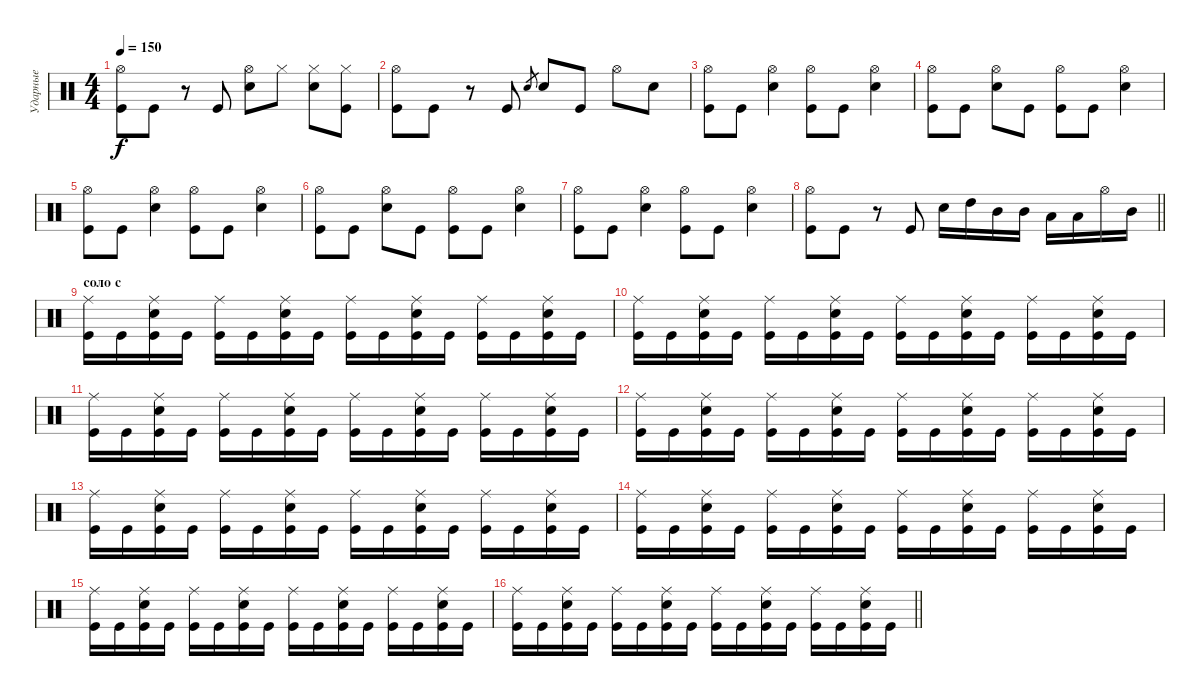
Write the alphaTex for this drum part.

\track ("Ударные" "Ударные") {instrument percussion}
\staff {score}
\articulation defaults
\ts (4 4)
\tempo 150
\clef neutral
\ks c
("Hi-Hat (open)" "Kick (hit)").8{dy f} "Kick (hit)".8 r.8 "Kick (hit)".8 ("Snare (hit) 2" "Hi-Hat (open)").8 "Hi-Hat (closed)".8 ("Snare (hit) 2" "Hi-Hat (closed)").8 ("Kick (hit)" "Hi-Hat (closed)").8 |
("Hi-Hat (open)" "Kick (hit)").8 "Kick (hit)".8 r.8 "Kick (hit)".8 "Snare (hit) 2".8{gr} "Snare (hit) 2".8 "Kick (hit)".8 "Hi-Hat (open)".8 "Snare (hit) 2".8 |
("Hi-Hat (open)" "Kick (hit)").8 "Kick (hit)".8 ("Hi-Hat (open)" "Snare (hit) 2").4 ("Kick (hit)" "Hi-Hat (open)").8 "Kick (hit)".8 ("Snare (hit) 2" "Hi-Hat (open)").4 |
("Kick (hit)" "Hi-Hat (open)").8 "Kick (hit)".8 ("Snare (hit) 2" "Hi-Hat (open)").8 "Kick (hit)".8 ("Hi-Hat (open)" "Kick (hit)").8 "Kick (hit)".8 ("Hi-Hat (open)" "Snare (hit) 2").4 |
("Hi-Hat (open)" "Kick (hit)").8 "Kick (hit)".8 ("Hi-Hat (open)" "Snare (hit) 2").4 ("Kick (hit)" "Hi-Hat (open)").8 "Kick (hit)".8 ("Snare (hit) 2" "Hi-Hat (open)").4 |
("Kick (hit)" "Hi-Hat (open)").8 "Kick (hit)".8 ("Snare (hit) 2" "Hi-Hat (open)").8 "Kick (hit)".8 ("Hi-Hat (open)" "Kick (hit)").8 "Kick (hit)".8 ("Hi-Hat (open)" "Snare (hit) 2").4 |
("Hi-Hat (open)" "Kick (hit)").8 "Kick (hit)".8 ("Hi-Hat (open)" "Snare (hit) 2").4 ("Kick (hit)" "Hi-Hat (open)").8 "Kick (hit)".8 ("Snare (hit) 2" "Hi-Hat (open)").4 |
\barLineRight lightlight
("Kick (hit)" "Hi-Hat (open)").8 "Kick (hit)".8 r.8 "Kick (hit)".8 "Snare (hit) 2".16 "High Tom (hit)".16 "Mid Tom (hit)".16 "Mid Tom (hit)".16 "Low Tom (hit)".16 "Low Tom (hit)".16 "Hi-Hat (open)".16 "Mid Tom (hit)".16 |
\section ("" "соло с")
("Kick (hit)" "Ride (middle)").16 "Kick (hit)".16 ("Kick (hit)" "Snare (hit) 2" "Ride (middle)").16 "Kick (hit)".16 ("Kick (hit)" "Ride (middle)").16 "Kick (hit)".16 ("Kick (hit)" "Snare (hit) 2" "Ride (middle)").16 "Kick (hit)".16 ("Kick (hit)" "Ride (middle)").16 "Kick (hit)".16 ("Kick (hit)" "Snare (hit) 2" "Ride (middle)").16 "Kick (hit)".16 ("Kick (hit)" "Ride (middle)").16 "Kick (hit)".16 ("Kick (hit)" "Snare (hit) 2" "Ride (middle)").16 "Kick (hit)".16 |
("Kick (hit)" "Ride (middle)").16 "Kick (hit)".16 ("Kick (hit)" "Snare (hit) 2" "Ride (middle)").16 "Kick (hit)".16 ("Kick (hit)" "Ride (middle)").16 "Kick (hit)".16 ("Kick (hit)" "Snare (hit) 2" "Ride (middle)").16 "Kick (hit)".16 ("Kick (hit)" "Ride (middle)").16 "Kick (hit)".16 ("Kick (hit)" "Snare (hit) 2" "Ride (middle)").16 "Kick (hit)".16 ("Kick (hit)" "Ride (middle)").16 "Kick (hit)".16 ("Kick (hit)" "Snare (hit) 2" "Ride (middle)").16 "Kick (hit)".16 |
("Kick (hit)" "Ride (middle)").16 "Kick (hit)".16 ("Kick (hit)" "Snare (hit) 2" "Ride (middle)").16 "Kick (hit)".16 ("Kick (hit)" "Ride (middle)").16 "Kick (hit)".16 ("Kick (hit)" "Snare (hit) 2" "Ride (middle)").16 "Kick (hit)".16 ("Kick (hit)" "Ride (middle)").16 "Kick (hit)".16 ("Kick (hit)" "Snare (hit) 2" "Ride (middle)").16 "Kick (hit)".16 ("Kick (hit)" "Ride (middle)").16 "Kick (hit)".16 ("Kick (hit)" "Snare (hit) 2" "Ride (middle)").16 "Kick (hit)".16 |
("Kick (hit)" "Ride (middle)").16 "Kick (hit)".16 ("Kick (hit)" "Snare (hit) 2" "Ride (middle)").16 "Kick (hit)".16 ("Kick (hit)" "Ride (middle)").16 "Kick (hit)".16 ("Kick (hit)" "Snare (hit) 2" "Ride (middle)").16 "Kick (hit)".16 ("Kick (hit)" "Ride (middle)").16 "Kick (hit)".16 ("Kick (hit)" "Snare (hit) 2" "Ride (middle)").16 "Kick (hit)".16 ("Kick (hit)" "Ride (middle)").16 "Kick (hit)".16 ("Kick (hit)" "Snare (hit) 2" "Ride (middle)").16 "Kick (hit)".16 |
("Kick (hit)" "Ride (middle)").16 "Kick (hit)".16 ("Kick (hit)" "Snare (hit) 2" "Ride (middle)").16 "Kick (hit)".16 ("Kick (hit)" "Ride (middle)").16 "Kick (hit)".16 ("Kick (hit)" "Snare (hit) 2" "Ride (middle)").16 "Kick (hit)".16 ("Kick (hit)" "Ride (middle)").16 "Kick (hit)".16 ("Kick (hit)" "Snare (hit) 2" "Ride (middle)").16 "Kick (hit)".16 ("Kick (hit)" "Ride (middle)").16 "Kick (hit)".16 ("Kick (hit)" "Snare (hit) 2" "Ride (middle)").16 "Kick (hit)".16 |
("Kick (hit)" "Ride (middle)").16 "Kick (hit)".16 ("Kick (hit)" "Snare (hit) 2" "Ride (middle)").16 "Kick (hit)".16 ("Kick (hit)" "Ride (middle)").16 "Kick (hit)".16 ("Kick (hit)" "Snare (hit) 2" "Ride (middle)").16 "Kick (hit)".16 ("Kick (hit)" "Ride (middle)").16 "Kick (hit)".16 ("Kick (hit)" "Snare (hit) 2" "Ride (middle)").16 "Kick (hit)".16 ("Kick (hit)" "Ride (middle)").16 "Kick (hit)".16 ("Kick (hit)" "Snare (hit) 2" "Ride (middle)").16 "Kick (hit)".16 |
("Kick (hit)" "Ride (middle)").16 "Kick (hit)".16 ("Kick (hit)" "Snare (hit) 2" "Ride (middle)").16 "Kick (hit)".16 ("Kick (hit)" "Ride (middle)").16 "Kick (hit)".16 ("Kick (hit)" "Snare (hit) 2" "Ride (middle)").16 "Kick (hit)".16 ("Kick (hit)" "Ride (middle)").16 "Kick (hit)".16 ("Kick (hit)" "Snare (hit) 2" "Ride (middle)").16 "Kick (hit)".16 ("Kick (hit)" "Ride (middle)").16 "Kick (hit)".16 ("Kick (hit)" "Snare (hit) 2" "Ride (middle)").16 "Kick (hit)".16 |
\barLineRight lightlight
("Kick (hit)" "Ride (middle)").16 "Kick (hit)".16 ("Kick (hit)" "Snare (hit) 2" "Ride (middle)").16 "Kick (hit)".16 ("Kick (hit)" "Ride (middle)").16 "Kick (hit)".16 ("Kick (hit)" "Snare (hit) 2" "Ride (middle)").16 "Kick (hit)".16 ("Kick (hit)" "Ride (middle)").16 "Kick (hit)".16 ("Kick (hit)" "Snare (hit) 2" "Ride (middle)").16 "Kick (hit)".16 ("Kick (hit)" "Ride (middle)").16 "Kick (hit)".16 ("Kick (hit)" "Snare (hit) 2" "Ride (middle)").16 "Kick (hit)".16
